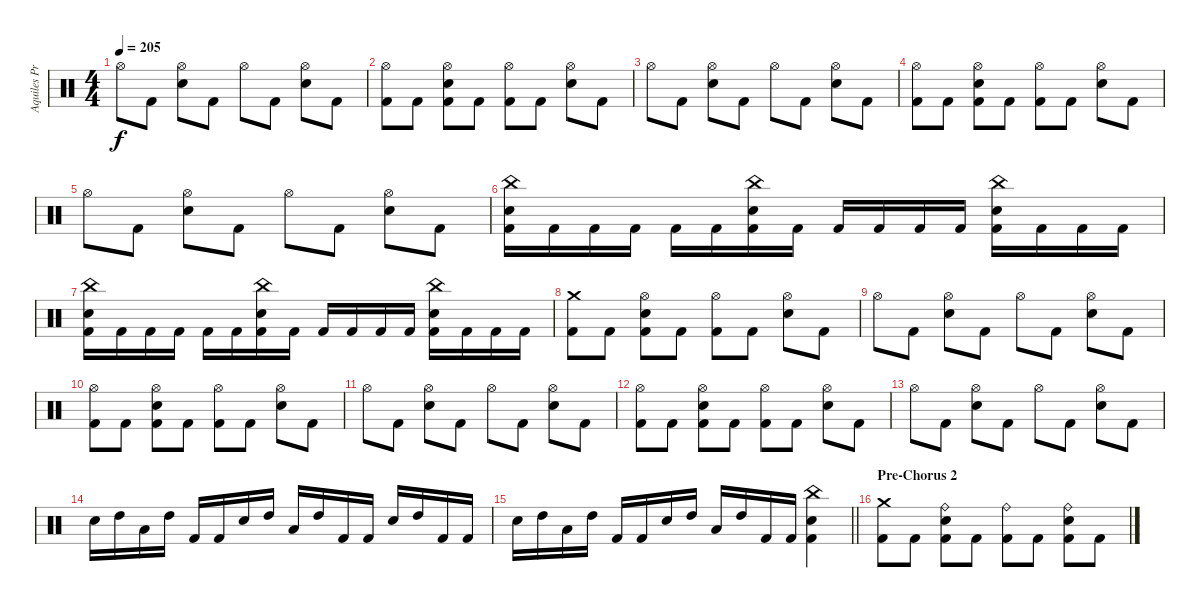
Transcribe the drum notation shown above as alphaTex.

\track ("Aquiles Priester" "Aquiles Pr") {instrument percussion}
\staff {score}
\articulation defaults
\ts (4 4)
\tempo 205
\clef neutral
\ks c "Hi-Hat (open)".8{dy f} "Kick (hit) 2".8
("Hi-Hat (open)" "Electric Snare (hit)").8 "Kick (hit) 2".8 "Hi-Hat (open)".8 "Kick (hit) 2".8 ("Hi-Hat (open)" "Electric Snare (hit)").8 "Kick (hit) 2".8 |
("Hi-Hat (open)" "Kick (hit) 2").8 "Kick (hit) 2".8 ("Hi-Hat (open)" "Electric Snare (hit)" "Kick (hit) 2").8 "Kick (hit) 2".8 ("Hi-Hat (open)" "Kick (hit) 2").8 "Kick (hit) 2".8 ("Hi-Hat (open)" "Electric Snare (hit)").8 "Kick (hit) 2".8 |
"Hi-Hat (open)".8 "Kick (hit) 2".8 ("Hi-Hat (open)" "Electric Snare (hit)").8 "Kick (hit) 2".8 "Hi-Hat (open)".8 "Kick (hit) 2".8 ("Hi-Hat (open)" "Electric Snare (hit)").8 "Kick (hit) 2".8 |
("Hi-Hat (open)" "Kick (hit) 2").8 "Kick (hit) 2".8 ("Hi-Hat (open)" "Electric Snare (hit)" "Kick (hit) 2").8 "Kick (hit) 2".8 ("Hi-Hat (open)" "Kick (hit) 2").8 "Kick (hit) 2".8 ("Hi-Hat (open)" "Electric Snare (hit)").8 "Kick (hit) 2".8 |
"Hi-Hat (open)".8 "Kick (hit) 2".8 ("Hi-Hat (open)" "Electric Snare (hit)").8 "Kick (hit) 2".8 "Hi-Hat (open)".8 "Kick (hit) 2".8 ("Hi-Hat (open)" "Electric Snare (hit)").8 "Kick (hit) 2".8 |
("China (hit)" "Electric Snare (hit)" "Kick (hit) 2").16 "Kick (hit) 2".16 "Kick (hit) 2".16 "Kick (hit) 2".16 "Kick (hit) 2".16 "Kick (hit) 2".16 ("China (hit)" "Electric Snare (hit)" "Kick (hit) 2").16 "Kick (hit) 2".16 "Kick (hit) 2".16 "Kick (hit) 2".16 "Kick (hit) 2".16 "Kick (hit) 2".16 ("China (hit)" "Electric Snare (hit)" "Kick (hit) 2").16 "Kick (hit) 2".16 "Kick (hit) 2".16 "Kick (hit) 2".16 |
("China (hit)" "Electric Snare (hit)" "Kick (hit) 2").16 "Kick (hit) 2".16 "Kick (hit) 2".16 "Kick (hit) 2".16 "Kick (hit) 2".16 "Kick (hit) 2".16 ("China (hit)" "Electric Snare (hit)" "Kick (hit) 2").16 "Kick (hit) 2".16 "Kick (hit) 2".16 "Kick (hit) 2".16 "Kick (hit) 2".16 "Kick (hit) 2".16 ("China (hit)" "Electric Snare (hit)" "Kick (hit) 2").16 "Kick (hit) 2".16 "Kick (hit) 2".16 "Kick (hit) 2".16 |
("Crash medium (hit)" "Kick (hit) 2").8 "Kick (hit) 2".8 ("Hi-Hat (open)" "Electric Snare (hit)" "Kick (hit) 2").8 "Kick (hit) 2".8 ("Hi-Hat (open)" "Kick (hit) 2").8 "Kick (hit) 2".8 ("Hi-Hat (open)" "Electric Snare (hit)").8 "Kick (hit) 2".8 |
"Hi-Hat (open)".8 "Kick (hit) 2".8 ("Hi-Hat (open)" "Electric Snare (hit)").8 "Kick (hit) 2".8 "Hi-Hat (open)".8 "Kick (hit) 2".8 ("Hi-Hat (open)" "Electric Snare (hit)").8 "Kick (hit) 2".8 |
("Hi-Hat (open)" "Kick (hit) 2").8 "Kick (hit) 2".8 ("Hi-Hat (open)" "Electric Snare (hit)" "Kick (hit) 2").8 "Kick (hit) 2".8 ("Hi-Hat (open)" "Kick (hit) 2").8 "Kick (hit) 2".8 ("Hi-Hat (open)" "Electric Snare (hit)").8 "Kick (hit) 2".8 |
"Hi-Hat (open)".8 "Kick (hit) 2".8 ("Hi-Hat (open)" "Electric Snare (hit)").8 "Kick (hit) 2".8 "Hi-Hat (open)".8 "Kick (hit) 2".8 ("Hi-Hat (open)" "Electric Snare (hit)").8 "Kick (hit) 2".8 |
("Hi-Hat (open)" "Kick (hit) 2").8 "Kick (hit) 2".8 ("Hi-Hat (open)" "Electric Snare (hit)" "Kick (hit) 2").8 "Kick (hit) 2".8 ("Hi-Hat (open)" "Kick (hit) 2").8 "Kick (hit) 2".8 ("Hi-Hat (open)" "Electric Snare (hit)").8 "Kick (hit) 2".8 |
"Hi-Hat (open)".8 "Kick (hit) 2".8 ("Hi-Hat (open)" "Electric Snare (hit)").8 "Kick (hit) 2".8 "Hi-Hat (open)".8 "Kick (hit) 2".8 ("Hi-Hat (open)" "Electric Snare (hit)").8 "Kick (hit) 2".8 |
"Electric Snare (hit)".16 "High Tom (hit)".16 "Low Tom (hit)".16 "High Tom (hit)".16 "Kick (hit) 2".16 "Kick (hit) 2".16 "Electric Snare (hit)".16 "High Tom (hit)".16 "Low Tom (hit)".16 "High Tom (hit)".16 "Kick (hit) 2".16 "Kick (hit) 2".16 "Electric Snare (hit)".16 "High Tom (hit)".16 "Kick (hit) 2".16 "Kick (hit) 2".16 |
\barLineRight lightlight "Electric Snare (hit)".16 "High Tom (hit)".16 "Low Tom (hit)".16 "High Tom (hit)".16 "Kick (hit) 2".16 "Kick (hit) 2".16 "Electric Snare (hit)".16 "High Tom (hit)".16 "Low Tom (hit)".16 "High Tom (hit)".16 "Kick (hit) 2".16 "Kick (hit) 2".16
("China (hit)" "Electric Snare (hit)" "Kick (hit) 2").4 |
\section ("" "Pre-Chorus 2")
("Crash medium (hit)" "Kick (hit) 2").8 "Kick (hit) 2".8 ("Ride (bell)" "Electric Snare (hit)" "Kick (hit) 2").8 "Kick (hit) 2".8 ("Ride (bell)" "Kick (hit) 2").8 "Kick (hit) 2".8 ("Ride (bell)" "Electric Snare (hit)" "Kick (hit) 2").8 "Kick (hit) 2".8
